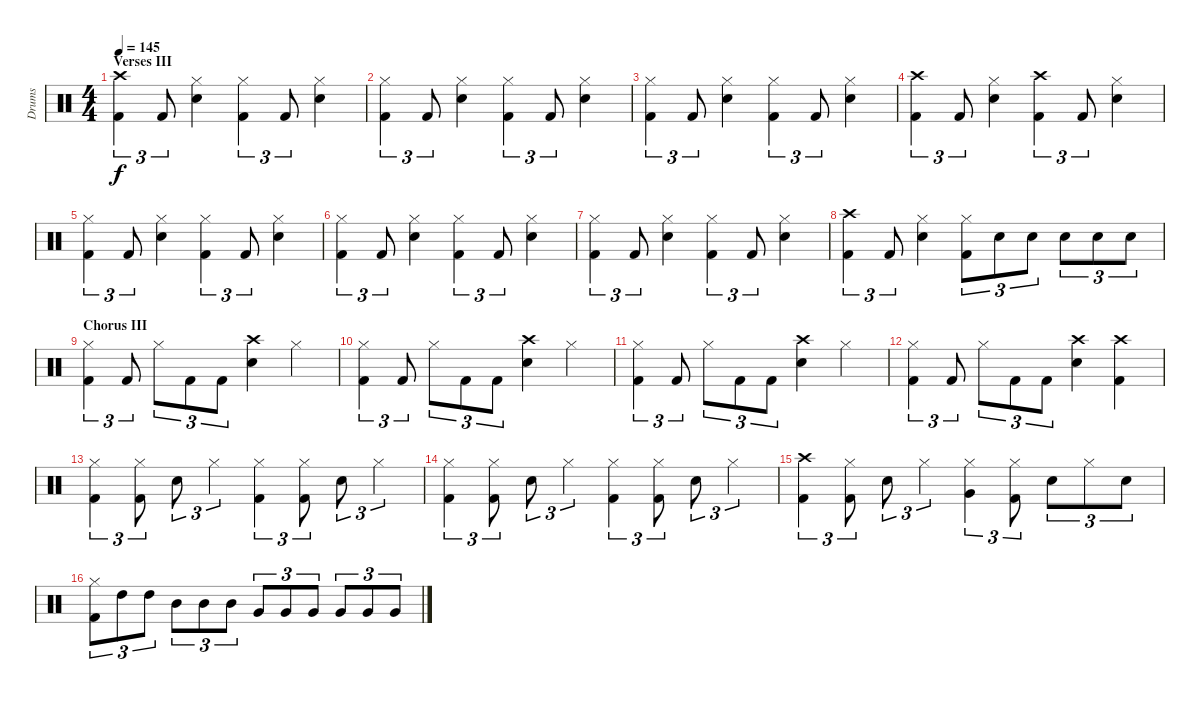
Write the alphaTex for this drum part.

\track ("Drums" "Drums") {instrument percussion}
\staff {score}
\articulation defaults
\ts (4 4)
\section ("" "Verses III")
\tempo 145
\clef neutral
\ks c
("Crash high (hit)" "Kick (hit) 2").4{tu (3 2) dy f} "Kick (hit) 2".8{tu (3 2)} ("Hi-Hat (closed)" "Snare (hit) 2").4 ("Hi-Hat (closed)" "Kick (hit) 2").4{tu (3 2)} "Kick (hit) 2".8{tu (3 2)} ("Hi-Hat (closed)" "Snare (hit) 2").4 |
("Hi-Hat (closed)" "Kick (hit) 2").4{tu (3 2)} "Kick (hit) 2".8{tu (3 2)} ("Hi-Hat (closed)" "Snare (hit) 2").4 ("Hi-Hat (closed)" "Kick (hit) 2").4{tu (3 2)} "Kick (hit) 2".8{tu (3 2)} ("Hi-Hat (closed)" "Snare (hit) 2").4 |
("Hi-Hat (closed)" "Kick (hit) 2").4{tu (3 2)} "Kick (hit) 2".8{tu (3 2)} ("Hi-Hat (closed)" "Snare (hit) 2").4 ("Hi-Hat (closed)" "Kick (hit) 2").4{tu (3 2)} "Kick (hit) 2".8{tu (3 2)} ("Hi-Hat (closed)" "Snare (hit) 2").4 |
("Crash high (hit)" "Kick (hit) 2").4{tu (3 2)} "Kick (hit) 2".8{tu (3 2)} ("Hi-Hat (closed)" "Snare (hit) 2").4 ("Crash high (hit)" "Kick (hit) 2").4{tu (3 2)} "Kick (hit) 2".8{tu (3 2)} ("Hi-Hat (closed)" "Snare (hit) 2").4 |
("Hi-Hat (closed)" "Kick (hit) 2").4{tu (3 2)} "Kick (hit) 2".8{tu (3 2)} ("Hi-Hat (closed)" "Snare (hit) 2").4 ("Hi-Hat (closed)" "Kick (hit) 2").4{tu (3 2)} "Kick (hit) 2".8{tu (3 2)} ("Hi-Hat (closed)" "Snare (hit) 2").4 |
("Hi-Hat (closed)" "Kick (hit) 2").4{tu (3 2)} "Kick (hit) 2".8{tu (3 2)} ("Hi-Hat (closed)" "Snare (hit) 2").4 ("Hi-Hat (closed)" "Kick (hit) 2").4{tu (3 2)} "Kick (hit) 2".8{tu (3 2)} ("Hi-Hat (closed)" "Snare (hit) 2").4 |
("Hi-Hat (closed)" "Kick (hit) 2").4{tu (3 2)} "Kick (hit) 2".8{tu (3 2)} ("Hi-Hat (closed)" "Snare (hit) 2").4 ("Hi-Hat (closed)" "Kick (hit) 2").4{tu (3 2)} "Kick (hit) 2".8{tu (3 2)} ("Hi-Hat (closed)" "Snare (hit) 2").4 |
("Kick (hit) 2" "Crash high (hit)").4{tu (3 2)} "Kick (hit) 2".8{tu (3 2)} ("Hi-Hat (closed)" "Snare (hit) 2").4 ("Hi-Hat (closed)" "Kick (hit) 2").8{tu (3 2)} "Snare (hit) 2".8{tu (3 2)} "Snare (hit) 2".8{tu (3 2)} "Snare (hit) 2".8{tu (3 2)} "Snare (hit) 2".8{tu (3 2)} "Snare (hit) 2".8{tu (3 2)} |
\section ("" "Chorus III")
("Hi-Hat (closed)" "Kick (hit) 2").4{tu (3 2)} "Kick (hit) 2".8{tu (3 2)} "Hi-Hat (closed)".8{tu (3 2)} "Kick (hit) 2".8{tu (3 2)} "Kick (hit) 2".8{tu (3 2)} ("Crash high (hit)" "Snare (hit) 2").4 "Hi-Hat (closed)".4 |
("Hi-Hat (closed)" "Kick (hit) 2").4{tu (3 2)} "Kick (hit) 2".8{tu (3 2)} "Hi-Hat (closed)".8{tu (3 2)} "Kick (hit) 2".8{tu (3 2)} "Kick (hit) 2".8{tu (3 2)} ("Crash high (hit)" "Snare (hit) 2").4 "Hi-Hat (closed)".4 |
("Hi-Hat (closed)" "Kick (hit) 2").4{tu (3 2)} "Kick (hit) 2".8{tu (3 2)} "Hi-Hat (closed)".8{tu (3 2)} "Kick (hit) 2".8{tu (3 2)} "Kick (hit) 2".8{tu (3 2)} ("Crash high (hit)" "Snare (hit) 2").4 "Hi-Hat (closed)".4 |
("Hi-Hat (closed)" "Kick (hit) 2").4{tu (3 2)} "Kick (hit) 2".8{tu (3 2)} "Hi-Hat (closed)".8{tu (3 2)} "Kick (hit) 2".8{tu (3 2)} "Kick (hit) 2".8{tu (3 2)} ("Crash high (hit)" "Snare (hit) 2").4 ("Crash high (hit)" "Kick (hit) 2").4 |
("Hi-Hat (closed)" "Kick (hit) 2").4{tu (3 2)} ("Hi-Hat (closed)" "Kick (hit) 2").8{tu (3 2)} "Snare (hit) 2".8{tu (3 2)} "Hi-Hat (closed)".4{tu (3 2)} ("Hi-Hat (closed)" "Kick (hit) 2").4{tu (3 2)} ("Hi-Hat (closed)" "Kick (hit) 2").8{tu (3 2)} "Snare (hit) 2".8{tu (3 2)} "Hi-Hat (closed)".4{tu (3 2)} |
("Hi-Hat (closed)" "Kick (hit) 2").4{tu (3 2)} ("Hi-Hat (closed)" "Kick (hit) 2").8{tu (3 2)} "Snare (hit) 2".8{tu (3 2)} "Hi-Hat (closed)".4{tu (3 2)} ("Hi-Hat (closed)" "Kick (hit) 2").4{tu (3 2)} ("Hi-Hat (closed)" "Kick (hit) 2").8{tu (3 2)} "Snare (hit) 2".8{tu (3 2)} "Hi-Hat (closed)".4{tu (3 2)} |
("Crash high (hit)" "Kick (hit) 2").4{tu (3 2)} ("Hi-Hat (closed)" "Kick (hit) 2").8{tu (3 2)} "Snare (hit) 2".8{tu (3 2)} "Hi-Hat (closed)".4{tu (3 2)} ("Hi-Hat (closed)" "Very Low Tom (hit)").4{tu (3 2)} ("Hi-Hat (closed)" "Kick (hit) 2").8{tu (3 2)} "Snare (hit) 2".8{tu (3 2)} "Hi-Hat (closed)".8{tu (3 2)} "Snare (hit) 2".8{tu (3 2)} |
("Hi-Hat (closed)" "Kick (hit) 2").8{tu (3 2)} "High Tom (hit)".8{tu (3 2)} "High Tom (hit)".8{tu (3 2)} "Mid Tom (hit)".8{tu (3 2)} "Mid Tom (hit)".8{tu (3 2)} "Mid Tom (hit)".8{tu (3 2)} "Very Low Tom (hit)".8{tu (3 2)} "Very Low Tom (hit)".8{tu (3 2)} "Very Low Tom (hit)".8{tu (3 2)} "Very Low Tom (hit)".8{tu (3 2)} "Very Low Tom (hit)".8{tu (3 2)} "Very Low Tom (hit)".8{tu (3 2)}
